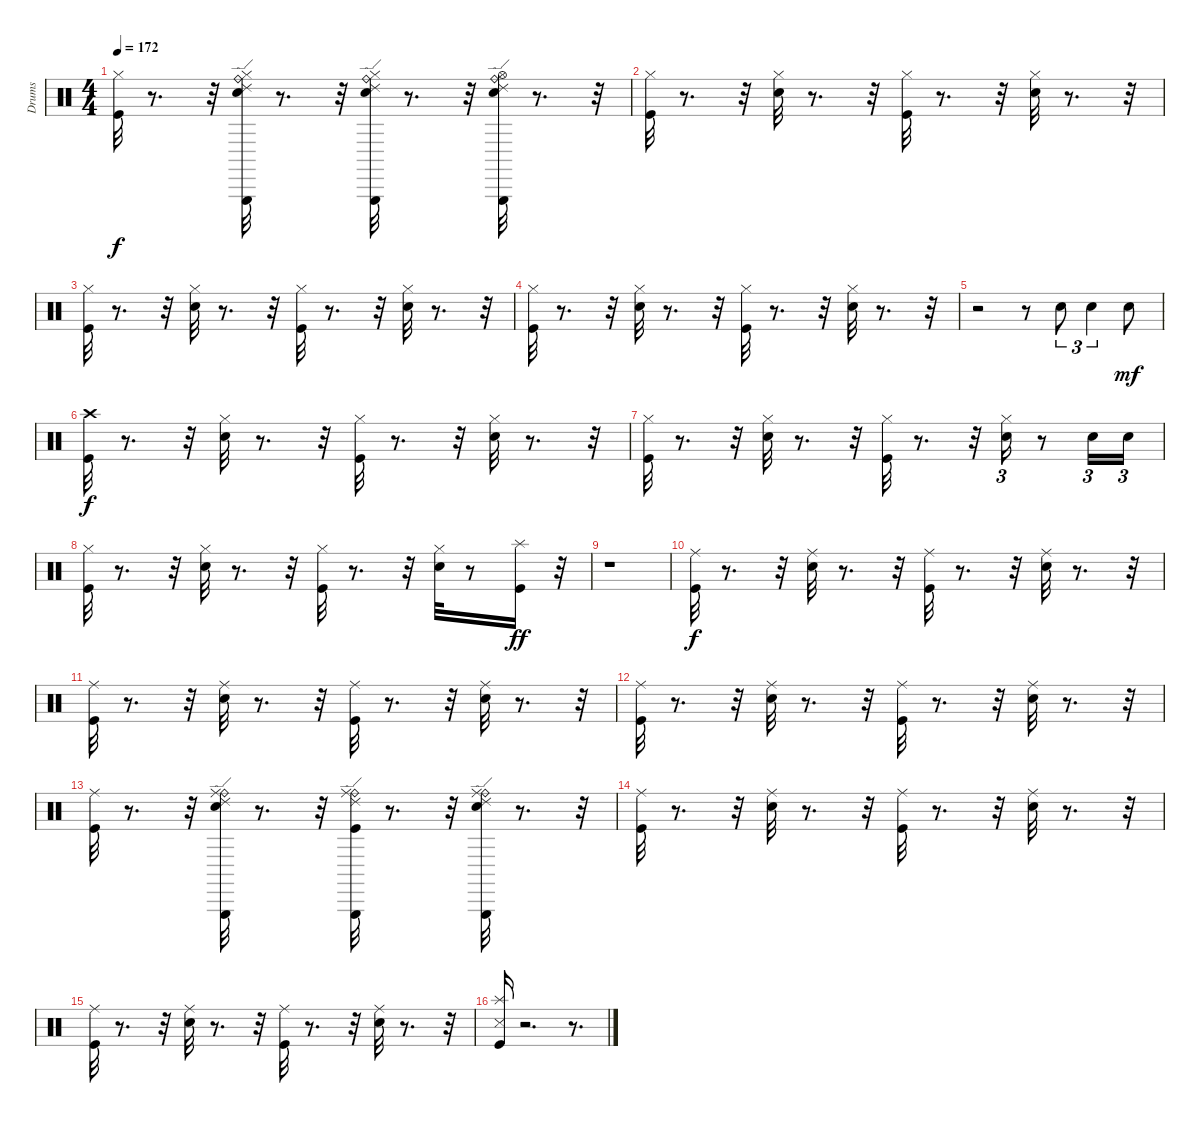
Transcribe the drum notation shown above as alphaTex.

\track ("Drums" "Drums") {instrument percussion}
\staff {score}
\articulation defaults
\ts (4 4)
\tempo 172
\clef neutral
\ks c
("Hi-Hat (closed)" "Kick (hit)").32{dy f} r.8{d} r.32 ("Snare (hit) 2" "Triangle (hit)" "Hi-Hat (closed)" "Ride (edge) 2" "Ride (bell)").32 r.8{d} r.32 ("Snare (hit) 2" "Triangle (hit)" "Hi-Hat (closed)" "Ride (edge) 2" "Ride (bell)").32 r.8{d} r.32 ("Snare (hit) 2" "Triangle (hit)" "Hi-Hat (open)" "Ride (edge) 2" "Ride (bell)").32 r.8{d} r.32 |
("Hi-Hat (closed)" "Kick (hit)").32 r.8{d} r.32 ("Snare (hit) 2" "Hi-Hat (closed)").32 r.8{d} r.32 ("Hi-Hat (closed)" "Kick (hit)").32 r.8{d} r.32 ("Snare (hit) 2" "Hi-Hat (closed)").32 r.8{d} r.32 |
("Hi-Hat (closed)" "Kick (hit)").32 r.8{d} r.32 ("Snare (hit) 2" "Hi-Hat (closed)").32 r.8{d} r.32 ("Hi-Hat (closed)" "Kick (hit)").32 r.8{d} r.32 ("Snare (hit) 2" "Hi-Hat (closed)").32 r.8{d} r.32 |
("Hi-Hat (closed)" "Kick (hit)").32 r.8{d} r.32 ("Snare (hit) 2" "Hi-Hat (closed)").32 r.8{d} r.32 ("Hi-Hat (closed)" "Kick (hit)").32 r.8{d} r.32 ("Snare (hit) 2" "Hi-Hat (closed)").32 r.8{d} r.32 |
r.2 r.8 "Electric Snare (hit)".8{tu (3 2)} "Electric Snare (hit)".4{tu (3 2)} "Electric Snare (hit)".8{dy mf} |
("Kick (hit)" "Crash high (hit)").32{dy f} r.8{d} r.32 ("Snare (hit) 2" "Hi-Hat (closed)").32 r.8{d} r.32 ("Hi-Hat (closed)" "Kick (hit)").32 r.8{d} r.32 ("Snare (hit) 2" "Hi-Hat (closed)").32 r.8{d} r.32 |
("Kick (hit)" "Hi-Hat (closed)").32 r.8{d} r.32 ("Snare (hit) 2" "Hi-Hat (closed)").32 r.8{d} r.32 ("Hi-Hat (closed)" "Kick (hit)").32 r.8{d} r.32 ("Snare (hit) 2" "Hi-Hat (closed)").16{tu (3 2)} r.8 "Snare (hit) 2".16{tu (3 2)} "Snare (hit) 2".16{tu (3 2)} |
("Hi-Hat (closed)" "Kick (hit)").32 r.8{d} r.32 ("Snare (hit) 2" "Hi-Hat (closed)").32 r.8{d} r.32 ("Hi-Hat (closed)" "Kick (hit)").32 r.8{d} r.32 ("Snare (hit) 2" "Hi-Hat (closed)").32 r.8 ("Kick (hit)" "Splash (hit)").16{dy ff} r.32 |
r.1 |
("Ride (middle)" "Kick (hit)").32{dy f} r.8{d} r.32 ("Snare (hit) 2" "Ride (middle)").32 r.8{d} r.32 ("Ride (middle)" "Kick (hit)").32 r.8{d} r.32 ("Snare (hit) 2" "Ride (middle)").32 r.8{d} r.32 |
("Ride (middle)" "Kick (hit)").32 r.8{d} r.32 ("Snare (hit) 2" "Ride (middle)").32 r.8{d} r.32 ("Ride (middle)" "Kick (hit)").32 r.8{d} r.32 ("Snare (hit) 2" "Ride (middle)").32 r.8{d} r.32 |
("Ride (middle)" "Kick (hit)").32 r.8{d} r.32 ("Snare (hit) 2" "Ride (middle)").32 r.8{d} r.32 ("Ride (middle)" "Kick (hit)").32 r.8{d} r.32 ("Snare (hit) 2" "Ride (middle)").32 r.8{d} r.32 |
("Ride (middle)" "Kick (hit)").32 r.8{d} r.32 ("Snare (hit) 2" "Triangle (hit)" "Ride (edge) 2" "Ride (bell)" "Ride (middle)").32 r.8{d} r.32 ("Triangle (hit)" "Ride (edge) 2" "Ride (bell)" "Ride (middle)" "Kick (hit)").32 r.8{d} r.32 ("Snare (hit) 2" "Triangle (hit)" "Ride (edge) 2" "Ride (bell)" "Ride (middle)").32 r.8{d} r.32 |
("Ride (middle)" "Kick (hit)").32 r.8{d} r.32 ("Snare (hit) 2" "Ride (middle)").32 r.8{d} r.32 ("Ride (middle)" "Kick (hit)").32 r.8{d} r.32 ("Snare (hit) 2" "Ride (middle)").32 r.8{d} r.32 |
("Ride (middle)" "Kick (hit)").32 r.8{d} r.32 ("Snare (hit) 2" "Ride (middle)").32 r.8{d} r.32 ("Ride (middle)" "Kick (hit)").32 r.8{d} r.32 ("Snare (hit) 2" "Ride (middle)").32 r.8{d} r.32 |
("Splash (hit)" "Metronome (hit)" "Kick (hit)").16 r.2{d} r.8{d}
